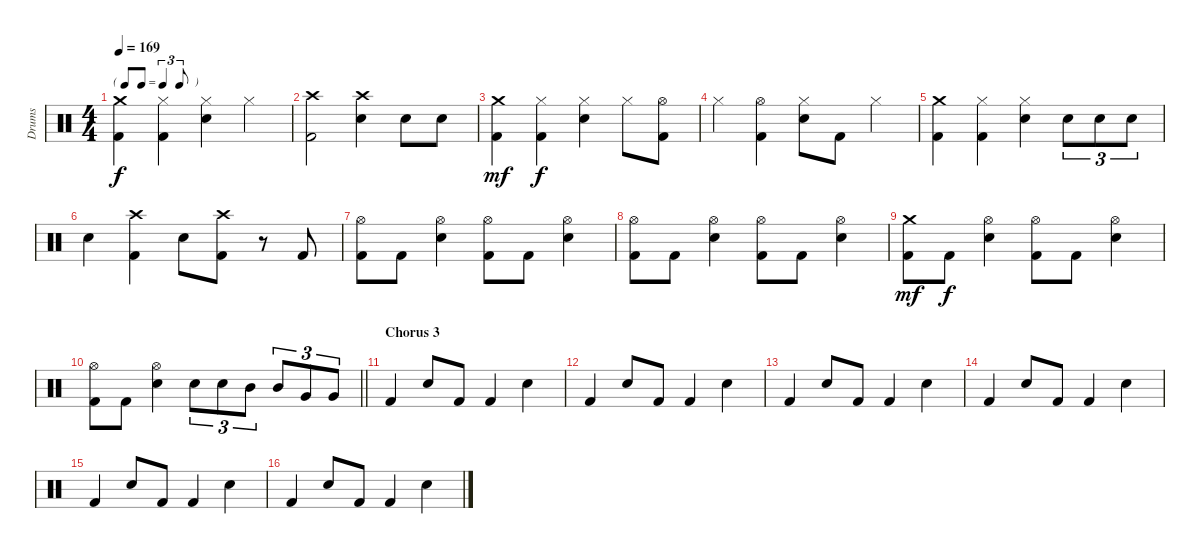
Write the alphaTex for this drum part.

\track ("Drums" "Drums") {instrument percussion}
\staff {score}
\articulation defaults
\ts (4 4)
\tf triplet8th
\tempo 169
\clef neutral
\ks c
("Crash medium (hit)" "Kick (hit) 2").4{dy f} ("Hi-Hat (closed)" "Kick (hit) 2").4 ("Hi-Hat (closed)" "Snare (hit) 2").4 "Hi-Hat (closed)".4 |
("Crash high (hit)" "Kick (hit) 2").2 ("Crash high (hit)" "Snare (hit) 2").4 "Snare (hit) 2".8 "Snare (hit) 2".8 |
("Crash medium (hit)" "Kick (hit) 2").4{dy mf} ("Hi-Hat (closed)" "Kick (hit) 2").4{dy f} ("Hi-Hat (closed)" "Snare (hit) 2").4 "Hi-Hat (closed)".8 ("Hi-Hat (open)" "Kick (hit) 2").8 |
"Hi-Hat (closed)".4 ("Hi-Hat (open)" "Kick (hit) 2").4 ("Hi-Hat (closed)" "Snare (hit) 2").8 "Kick (hit) 2".8 "Hi-Hat (closed)".4 |
("Crash medium (hit)" "Kick (hit) 2").4 ("Hi-Hat (closed)" "Kick (hit) 2").4 ("Hi-Hat (closed)" "Snare (hit) 2").4 "Snare (hit) 2".8{tu (3 2)} "Snare (hit) 2".8{tu (3 2)} "Snare (hit) 2".8{tu (3 2)} |
"Snare (hit) 2".4 ("Crash high (hit)" "Kick (hit) 2").4 "Snare (hit) 2".8 ("Crash high (hit)" "Kick (hit) 2").8 r.8 "Kick (hit) 2".8 |
("Hi-Hat (open)" "Kick (hit) 2").8 "Kick (hit) 2".8 ("Hi-Hat (open)" "Snare (hit) 2").4 ("Hi-Hat (open)" "Kick (hit) 2").8 "Kick (hit) 2".8 ("Hi-Hat (open)" "Snare (hit) 2").4 |
("Hi-Hat (open)" "Kick (hit) 2").8 "Kick (hit) 2".8 ("Hi-Hat (open)" "Snare (hit) 2").4 ("Hi-Hat (open)" "Kick (hit) 2").8 "Kick (hit) 2".8 ("Hi-Hat (open)" "Snare (hit) 2").4 |
("Crash medium (hit)" "Kick (hit) 2").8{dy mf} "Kick (hit) 2".8{dy f} ("Hi-Hat (open)" "Snare (hit) 2").4 ("Hi-Hat (open)" "Kick (hit) 2").8 "Kick (hit) 2".8 ("Hi-Hat (open)" "Snare (hit) 2").4 |
\barLineRight lightlight
("Hi-Hat (open)" "Kick (hit) 2").8 "Kick (hit) 2".8 ("Hi-Hat (open)" "Snare (hit) 2").4 "Snare (hit) 2".8{tu (3 2)} "Snare (hit) 2".8{tu (3 2)} "Mid Tom (hit)".8{tu (3 2)} "Mid Tom (hit)".8{tu (3 2)} "Very Low Tom (hit)".8{tu (3 2)} "Very Low Tom (hit)".8{tu (3 2)} |
\section ("" "Chorus 3")
"Kick (hit) 2".4 "Hand Clap (hit)".8 "Kick (hit) 2".8 "Kick (hit) 2".4 "Hand Clap (hit)".4 |
"Kick (hit) 2".4 "Hand Clap (hit)".8 "Kick (hit) 2".8 "Kick (hit) 2".4 "Hand Clap (hit)".4 |
"Kick (hit) 2".4 "Hand Clap (hit)".8 "Kick (hit) 2".8 "Kick (hit) 2".4 "Hand Clap (hit)".4 |
"Kick (hit) 2".4 "Hand Clap (hit)".8 "Kick (hit) 2".8 "Kick (hit) 2".4 "Hand Clap (hit)".4 |
"Kick (hit) 2".4 "Hand Clap (hit)".8 "Kick (hit) 2".8 "Kick (hit) 2".4 "Hand Clap (hit)".4 |
"Kick (hit) 2".4 "Hand Clap (hit)".8 "Kick (hit) 2".8 "Kick (hit) 2".4 "Hand Clap (hit)".4
